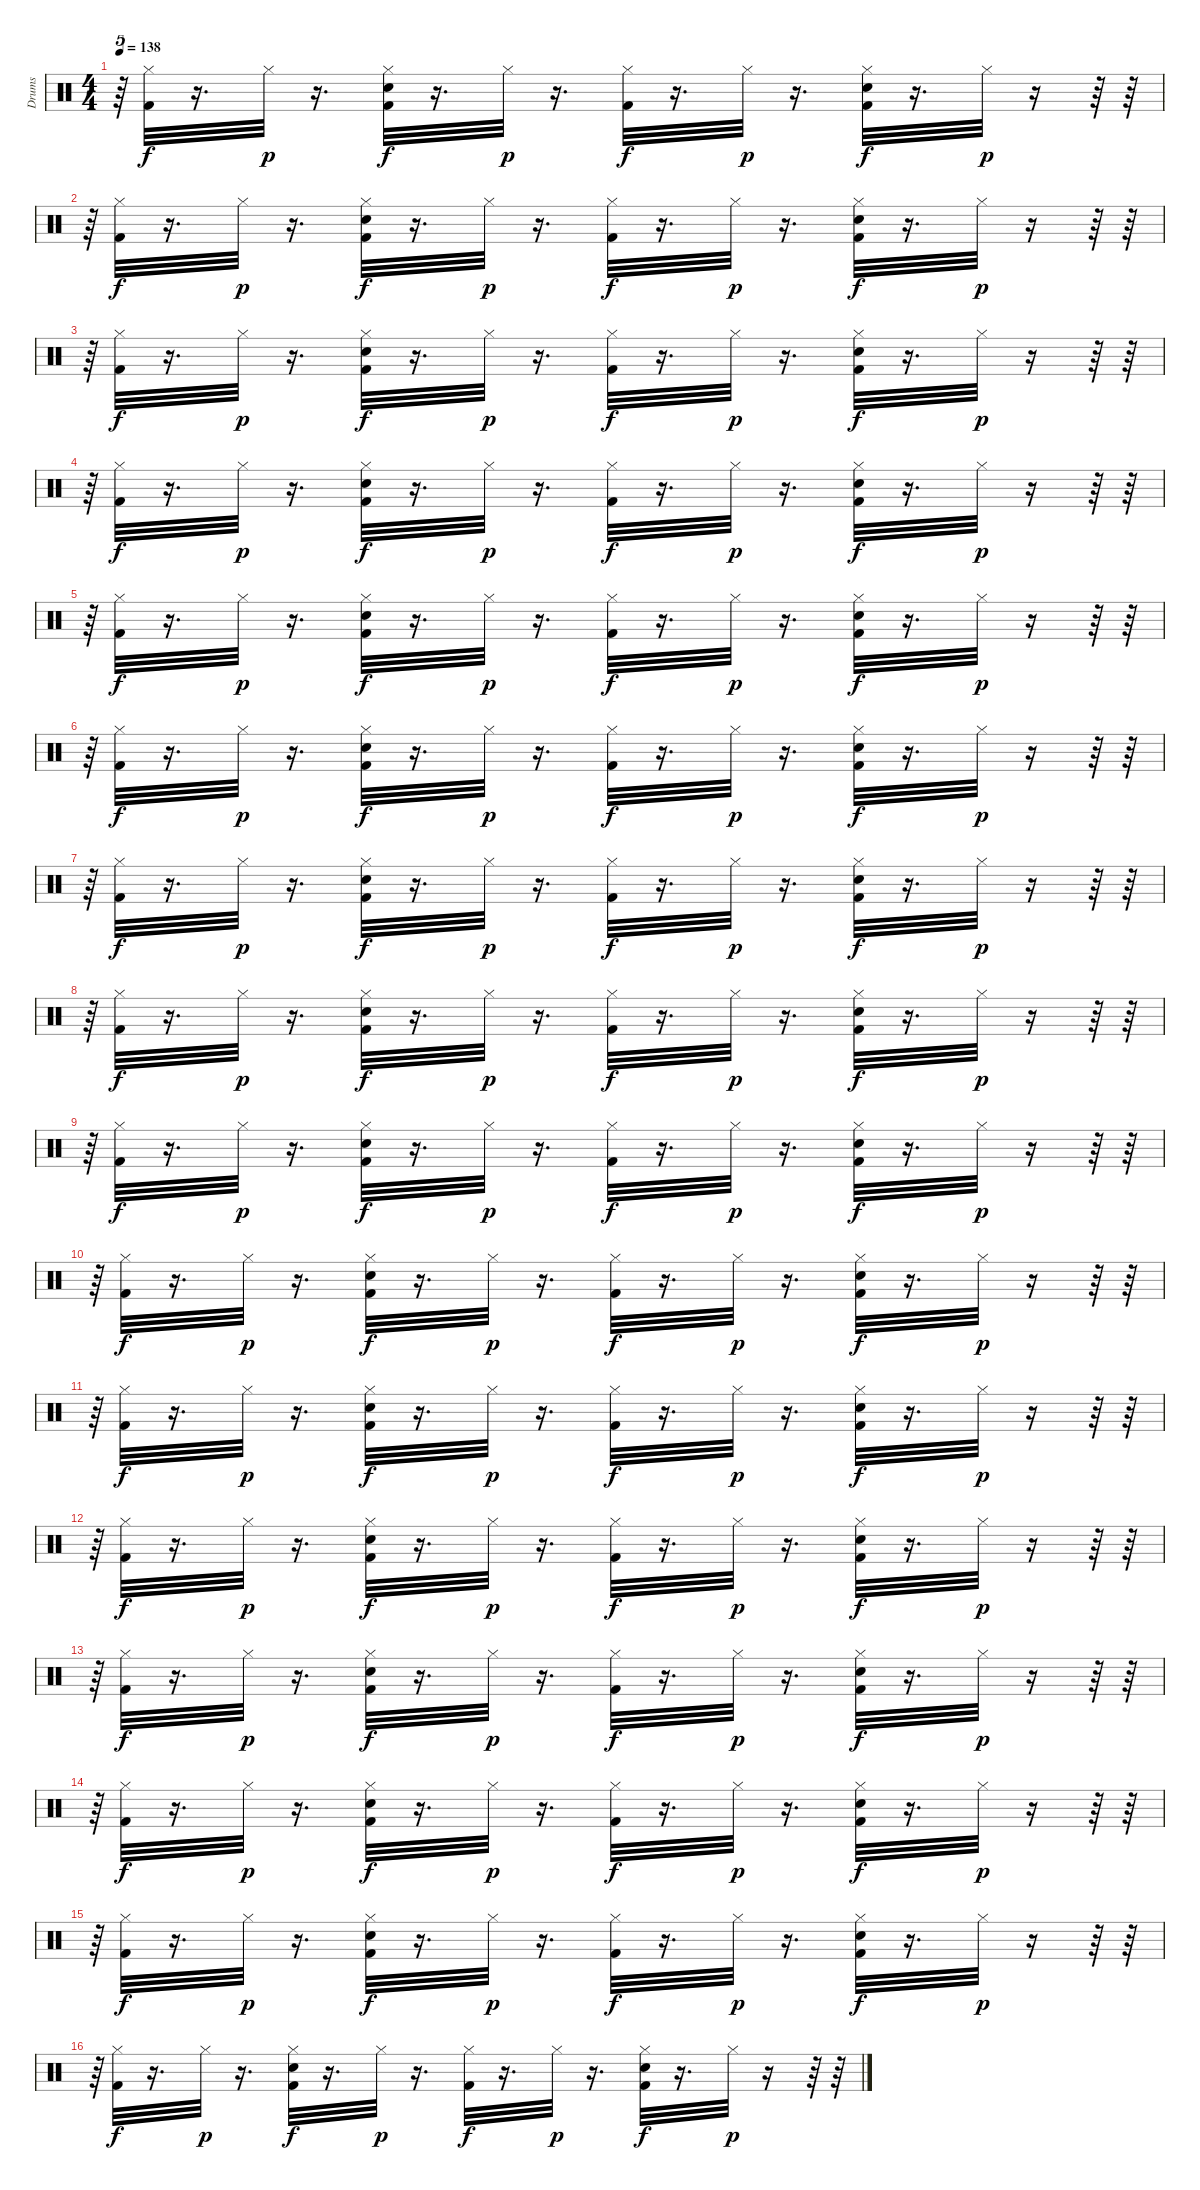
\track ("Drums" "Drums") {instrument percussion}
\staff {score}
\articulation defaults
\ts (4 4)
\tempo 138
\clef neutral
\ks c
r.64{tu (5 4) dy p} ("Hi-Hat (closed)" "Kick (hit) 2").32{dy f} r.16{d} "Hi-Hat (closed)".32{dy p} r.16{d} ("Kick (hit) 2" "Hi-Hat (closed)" "Electric Snare (hit)").32{dy f} r.16{d} "Hi-Hat (closed)".32{dy p} r.16{d} ("Hi-Hat (closed)" "Kick (hit) 2").32{dy f} r.16{d} "Hi-Hat (closed)".32{dy p} r.16{d} ("Kick (hit) 2" "Hi-Hat (closed)" "Electric Snare (hit)").32{dy f} r.16{d} "Hi-Hat (closed)".32{dy p} r.16 r.64 r.64 |
r.64{tu (5 4)} ("Hi-Hat (closed)" "Kick (hit) 2").32{dy f} r.16{d} "Hi-Hat (closed)".32{dy p} r.16{d} ("Kick (hit) 2" "Hi-Hat (closed)" "Electric Snare (hit)").32{dy f} r.16{d} "Hi-Hat (closed)".32{dy p} r.16{d} ("Hi-Hat (closed)" "Kick (hit) 2").32{dy f} r.16{d} "Hi-Hat (closed)".32{dy p} r.16{d} ("Kick (hit) 2" "Hi-Hat (closed)" "Electric Snare (hit)").32{dy f} r.16{d} "Hi-Hat (closed)".32{dy p} r.16 r.64 r.64 |
r.64{tu (5 4)} ("Hi-Hat (closed)" "Kick (hit) 2").32{dy f} r.16{d} "Hi-Hat (closed)".32{dy p} r.16{d} ("Kick (hit) 2" "Hi-Hat (closed)" "Electric Snare (hit)").32{dy f} r.16{d} "Hi-Hat (closed)".32{dy p} r.16{d} ("Hi-Hat (closed)" "Kick (hit) 2").32{dy f} r.16{d} "Hi-Hat (closed)".32{dy p} r.16{d} ("Kick (hit) 2" "Hi-Hat (closed)" "Electric Snare (hit)").32{dy f} r.16{d} "Hi-Hat (closed)".32{dy p} r.16 r.64 r.64 |
r.64{tu (5 4)} ("Hi-Hat (closed)" "Kick (hit) 2").32{dy f} r.16{d} "Hi-Hat (closed)".32{dy p} r.16{d} ("Kick (hit) 2" "Hi-Hat (closed)" "Electric Snare (hit)").32{dy f} r.16{d} "Hi-Hat (closed)".32{dy p} r.16{d} ("Hi-Hat (closed)" "Kick (hit) 2").32{dy f} r.16{d} "Hi-Hat (closed)".32{dy p} r.16{d} ("Kick (hit) 2" "Hi-Hat (closed)" "Electric Snare (hit)").32{dy f} r.16{d} "Hi-Hat (closed)".32{dy p} r.16 r.64 r.64 |
r.64{tu (5 4)} ("Hi-Hat (closed)" "Kick (hit) 2").32{dy f} r.16{d} "Hi-Hat (closed)".32{dy p} r.16{d} ("Kick (hit) 2" "Hi-Hat (closed)" "Electric Snare (hit)").32{dy f} r.16{d} "Hi-Hat (closed)".32{dy p} r.16{d} ("Hi-Hat (closed)" "Kick (hit) 2").32{dy f} r.16{d} "Hi-Hat (closed)".32{dy p} r.16{d} ("Kick (hit) 2" "Hi-Hat (closed)" "Electric Snare (hit)").32{dy f} r.16{d} "Hi-Hat (closed)".32{dy p} r.16 r.64 r.64 |
r.64{tu (5 4)} ("Hi-Hat (closed)" "Kick (hit) 2").32{dy f} r.16{d} "Hi-Hat (closed)".32{dy p} r.16{d} ("Kick (hit) 2" "Hi-Hat (closed)" "Electric Snare (hit)").32{dy f} r.16{d} "Hi-Hat (closed)".32{dy p} r.16{d} ("Hi-Hat (closed)" "Kick (hit) 2").32{dy f} r.16{d} "Hi-Hat (closed)".32{dy p} r.16{d} ("Kick (hit) 2" "Hi-Hat (closed)" "Electric Snare (hit)").32{dy f} r.16{d} "Hi-Hat (closed)".32{dy p} r.16 r.64 r.64 |
r.64{tu (5 4)} ("Hi-Hat (closed)" "Kick (hit) 2").32{dy f} r.16{d} "Hi-Hat (closed)".32{dy p} r.16{d} ("Kick (hit) 2" "Hi-Hat (closed)" "Electric Snare (hit)").32{dy f} r.16{d} "Hi-Hat (closed)".32{dy p} r.16{d} ("Hi-Hat (closed)" "Kick (hit) 2").32{dy f} r.16{d} "Hi-Hat (closed)".32{dy p} r.16{d} ("Kick (hit) 2" "Hi-Hat (closed)" "Electric Snare (hit)").32{dy f} r.16{d} "Hi-Hat (closed)".32{dy p} r.16 r.64 r.64 |
r.64{tu (5 4)} ("Hi-Hat (closed)" "Kick (hit) 2").32{dy f} r.16{d} "Hi-Hat (closed)".32{dy p} r.16{d} ("Kick (hit) 2" "Hi-Hat (closed)" "Electric Snare (hit)").32{dy f} r.16{d} "Hi-Hat (closed)".32{dy p} r.16{d} ("Hi-Hat (closed)" "Kick (hit) 2").32{dy f} r.16{d} "Hi-Hat (closed)".32{dy p} r.16{d} ("Kick (hit) 2" "Hi-Hat (closed)" "Electric Snare (hit)").32{dy f} r.16{d} "Hi-Hat (closed)".32{dy p} r.16 r.64 r.64 |
r.64{tu (5 4)} ("Hi-Hat (closed)" "Kick (hit) 2").32{dy f} r.16{d} "Hi-Hat (closed)".32{dy p} r.16{d} ("Kick (hit) 2" "Hi-Hat (closed)" "Electric Snare (hit)").32{dy f} r.16{d} "Hi-Hat (closed)".32{dy p} r.16{d} ("Hi-Hat (closed)" "Kick (hit) 2").32{dy f} r.16{d} "Hi-Hat (closed)".32{dy p} r.16{d} ("Kick (hit) 2" "Hi-Hat (closed)" "Electric Snare (hit)").32{dy f} r.16{d} "Hi-Hat (closed)".32{dy p} r.16 r.64 r.64 |
r.64{tu (5 4)} ("Hi-Hat (closed)" "Kick (hit) 2").32{dy f} r.16{d} "Hi-Hat (closed)".32{dy p} r.16{d} ("Kick (hit) 2" "Hi-Hat (closed)" "Electric Snare (hit)").32{dy f} r.16{d} "Hi-Hat (closed)".32{dy p} r.16{d} ("Hi-Hat (closed)" "Kick (hit) 2").32{dy f} r.16{d} "Hi-Hat (closed)".32{dy p} r.16{d} ("Kick (hit) 2" "Hi-Hat (closed)" "Electric Snare (hit)").32{dy f} r.16{d} "Hi-Hat (closed)".32{dy p} r.16 r.64 r.64 |
r.64{tu (5 4)} ("Hi-Hat (closed)" "Kick (hit) 2").32{dy f} r.16{d} "Hi-Hat (closed)".32{dy p} r.16{d} ("Kick (hit) 2" "Hi-Hat (closed)" "Electric Snare (hit)").32{dy f} r.16{d} "Hi-Hat (closed)".32{dy p} r.16{d} ("Hi-Hat (closed)" "Kick (hit) 2").32{dy f} r.16{d} "Hi-Hat (closed)".32{dy p} r.16{d} ("Kick (hit) 2" "Hi-Hat (closed)" "Electric Snare (hit)").32{dy f} r.16{d} "Hi-Hat (closed)".32{dy p} r.16 r.64 r.64 |
r.64{tu (5 4)} ("Hi-Hat (closed)" "Kick (hit) 2").32{dy f} r.16{d} "Hi-Hat (closed)".32{dy p} r.16{d} ("Kick (hit) 2" "Hi-Hat (closed)" "Electric Snare (hit)").32{dy f} r.16{d} "Hi-Hat (closed)".32{dy p} r.16{d} ("Hi-Hat (closed)" "Kick (hit) 2").32{dy f} r.16{d} "Hi-Hat (closed)".32{dy p} r.16{d} ("Kick (hit) 2" "Hi-Hat (closed)" "Electric Snare (hit)").32{dy f} r.16{d} "Hi-Hat (closed)".32{dy p} r.16 r.64 r.64 |
r.64{tu (5 4)} ("Hi-Hat (closed)" "Kick (hit) 2").32{dy f} r.16{d} "Hi-Hat (closed)".32{dy p} r.16{d} ("Kick (hit) 2" "Hi-Hat (closed)" "Electric Snare (hit)").32{dy f} r.16{d} "Hi-Hat (closed)".32{dy p} r.16{d} ("Hi-Hat (closed)" "Kick (hit) 2").32{dy f} r.16{d} "Hi-Hat (closed)".32{dy p} r.16{d} ("Kick (hit) 2" "Hi-Hat (closed)" "Electric Snare (hit)").32{dy f} r.16{d} "Hi-Hat (closed)".32{dy p} r.16 r.64 r.64 |
r.64{tu (5 4)} ("Hi-Hat (closed)" "Kick (hit) 2").32{dy f} r.16{d} "Hi-Hat (closed)".32{dy p} r.16{d} ("Kick (hit) 2" "Hi-Hat (closed)" "Electric Snare (hit)").32{dy f} r.16{d} "Hi-Hat (closed)".32{dy p} r.16{d} ("Hi-Hat (closed)" "Kick (hit) 2").32{dy f} r.16{d} "Hi-Hat (closed)".32{dy p} r.16{d} ("Kick (hit) 2" "Hi-Hat (closed)" "Electric Snare (hit)").32{dy f} r.16{d} "Hi-Hat (closed)".32{dy p} r.16 r.64 r.64 |
r.64{tu (5 4)} ("Hi-Hat (closed)" "Kick (hit) 2").32{dy f} r.16{d} "Hi-Hat (closed)".32{dy p} r.16{d} ("Kick (hit) 2" "Hi-Hat (closed)" "Electric Snare (hit)").32{dy f} r.16{d} "Hi-Hat (closed)".32{dy p} r.16{d} ("Hi-Hat (closed)" "Kick (hit) 2").32{dy f} r.16{d} "Hi-Hat (closed)".32{dy p} r.16{d} ("Kick (hit) 2" "Hi-Hat (closed)" "Electric Snare (hit)").32{dy f} r.16{d} "Hi-Hat (closed)".32{dy p} r.16 r.64 r.64 |
r.64{tu (5 4)} ("Hi-Hat (closed)" "Kick (hit) 2").32{dy f} r.16{d} "Hi-Hat (closed)".32{dy p} r.16{d} ("Kick (hit) 2" "Hi-Hat (closed)" "Electric Snare (hit)").32{dy f} r.16{d} "Hi-Hat (closed)".32{dy p} r.16{d} ("Hi-Hat (closed)" "Kick (hit) 2").32{dy f} r.16{d} "Hi-Hat (closed)".32{dy p} r.16{d} ("Kick (hit) 2" "Hi-Hat (closed)" "Electric Snare (hit)").32{dy f} r.16{d} "Hi-Hat (closed)".32{dy p} r.16 r.64 r.64
